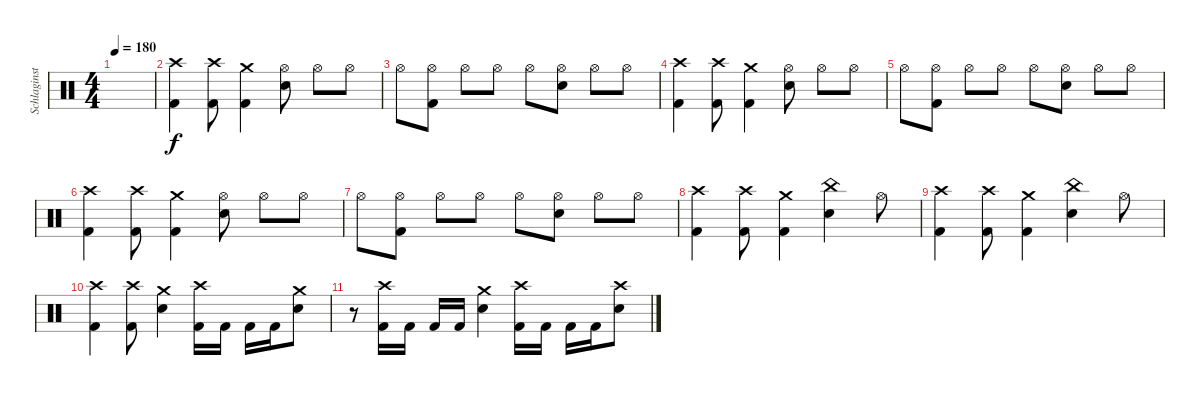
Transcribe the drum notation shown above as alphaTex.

\track ("Schlaginstrumente - Auswahl" "Schlaginst") {instrument percussion}
\staff {score}
\articulation defaults
\ts (4 4)
\tempo 180
\clef neutral
\ks c
|
("Crash high (hit)" "Kick (hit) 2").4 ("Crash high (hit)" "Kick (hit) 2").8 ("Crash medium (hit)" "Kick (hit) 2").4 ("Hi-Hat (open)" "Snare (hit) 2").8 "Hi-Hat (open)".8 "Hi-Hat (open)".8 |
"Hi-Hat (open)".8 ("Hi-Hat (open)" "Kick (hit) 2").8 "Hi-Hat (open)".8 "Hi-Hat (open)".8 "Hi-Hat (open)".8 ("Hi-Hat (open)" "Snare (hit) 2").8 "Hi-Hat (open)".8 "Hi-Hat (open)".8 |
("Crash high (hit)" "Kick (hit) 2").4 ("Crash high (hit)" "Kick (hit) 2").8 ("Crash medium (hit)" "Kick (hit) 2").4 ("Hi-Hat (open)" "Snare (hit) 2").8 "Hi-Hat (open)".8 "Hi-Hat (open)".8 |
"Hi-Hat (open)".8 ("Hi-Hat (open)" "Kick (hit) 2").8 "Hi-Hat (open)".8 "Hi-Hat (open)".8 "Hi-Hat (open)".8 ("Hi-Hat (open)" "Snare (hit) 2").8 "Hi-Hat (open)".8 "Hi-Hat (open)".8 |
("Crash high (hit)" "Kick (hit) 2").4 ("Crash high (hit)" "Kick (hit) 2").8 ("Crash medium (hit)" "Kick (hit) 2").4 ("Hi-Hat (open)" "Snare (hit) 2").8 "Hi-Hat (open)".8 "Hi-Hat (open)".8 |
"Hi-Hat (open)".8 ("Hi-Hat (open)" "Kick (hit) 2").8 "Hi-Hat (open)".8 "Hi-Hat (open)".8 "Hi-Hat (open)".8 ("Hi-Hat (open)" "Snare (hit) 2").8 "Hi-Hat (open)".8 "Hi-Hat (open)".8 |
("Crash high (hit)" "Kick (hit) 2").4 ("Crash high (hit)" "Kick (hit) 2").8 ("Crash medium (hit)" "Kick (hit) 2").4 ("China (hit)" "Snare (hit) 2").4 "Hi-Hat (open)".8 |
("Crash high (hit)" "Kick (hit) 2").4 ("Crash high (hit)" "Kick (hit) 2").8 ("Crash medium (hit)" "Kick (hit) 2").4 ("China (hit)" "Snare (hit) 2").4 "Hi-Hat (open)".8 |
("Crash high (hit)" "Kick (hit) 2").4 ("Crash high (hit)" "Kick (hit) 2").8 ("Crash medium (hit)" "Snare (hit) 2").4 ("Crash high (hit)" "Kick (hit) 2").16 "Kick (hit) 2".16 "Kick (hit) 2".16 "Kick (hit) 2".16 ("Crash medium (hit)" "Snare (hit) 2").8 |
r.8 ("Crash high (hit)" "Kick (hit) 2").16 "Kick (hit) 2".16 "Kick (hit) 2".16 "Kick (hit) 2".16 ("Crash medium (hit)" "Snare (hit) 2").4 ("Crash high (hit)" "Kick (hit) 2").16 "Kick (hit) 2".16 "Kick (hit) 2".16 "Kick (hit) 2".16 ("Crash high (hit)" "Snare (hit) 2").8
